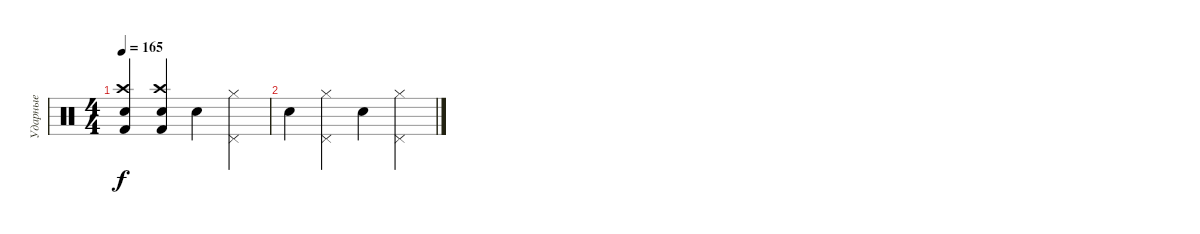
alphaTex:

\track ("Ударные" "Ударные") {instrument percussion}
\staff {score}
\articulation defaults
\ts (4 4)
\tempo 165
\clef neutral
\ks c
("Kick (hit) 2" "Crash high (hit)" "Snare (hit) 2").4{dy f} ("Kick (hit) 2" "Crash high (hit)" "Snare (hit) 2").4 "Snare (hit) 2".4 ("Hi-Hat (closed)" "Pedal Hi-Hat (hit)").4 |
"Electric Snare (hit)".4 ("Hi-Hat (closed)" "Pedal Hi-Hat (hit)").4 "Electric Snare (hit)".4 ("Hi-Hat (closed)" "Pedal Hi-Hat (hit)").4
